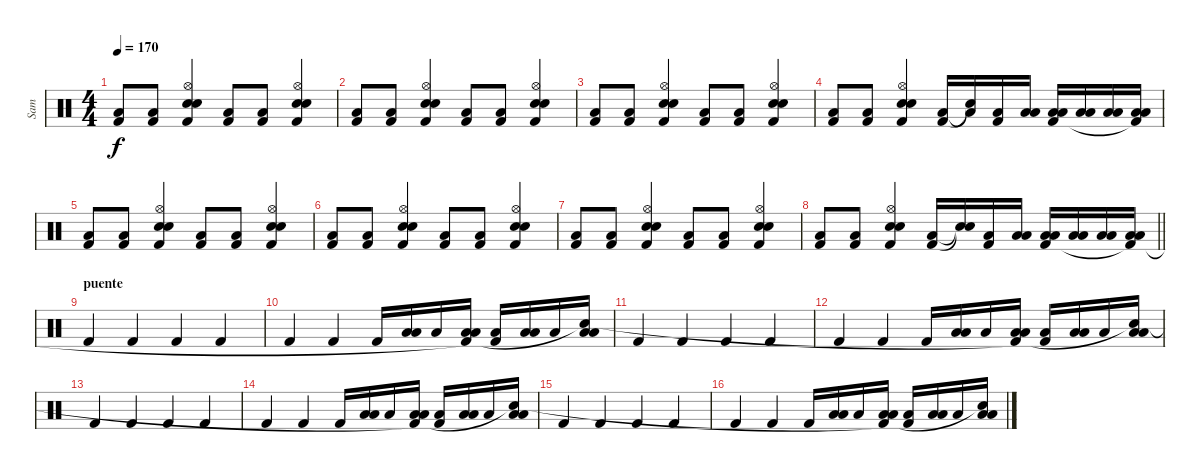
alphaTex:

\track ("Sam" "Sam") {instrument percussion}
\staff {score}
\articulation defaults
\ts (4 4)
\tempo 170
\clef neutral
\ks c
("Low Floor Tom (hit)" "Kick (hit) 2").8{dy f volume 10} ("Low Floor Tom (hit)" "Kick (hit) 2").8 ("Hi-Hat (open)" "Snare (hit) 2" "Snare (hit) 2" "Kick (hit) 2").4 ("Low Floor Tom (hit)" "Kick (hit) 2").8 ("Low Floor Tom (hit)" "Kick (hit) 2").8 ("Hi-Hat (open)" "Snare (hit) 2" "Snare (hit) 2" "Kick (hit) 2").4 |
("Low Floor Tom (hit)" "Kick (hit) 2").8 ("Low Floor Tom (hit)" "Kick (hit) 2").8 ("Hi-Hat (open)" "Snare (hit) 2" "Snare (hit) 2" "Kick (hit) 2").4 ("Low Floor Tom (hit)" "Kick (hit) 2").8 ("Low Floor Tom (hit)" "Kick (hit) 2").8 ("Hi-Hat (open)" "Snare (hit) 2" "Snare (hit) 2" "Kick (hit) 2").4 |
("Low Floor Tom (hit)" "Kick (hit) 2").8 ("Low Floor Tom (hit)" "Kick (hit) 2").8 ("Hi-Hat (open)" "Snare (hit) 2" "Snare (hit) 2" "Kick (hit) 2").4 ("Low Floor Tom (hit)" "Kick (hit) 2").8 ("Low Floor Tom (hit)" "Kick (hit) 2").8 ("Hi-Hat (open)" "Snare (hit) 2" "Snare (hit) 2" "Kick (hit) 2").4 |
("Low Floor Tom (hit)" "Kick (hit) 2").8 ("Low Floor Tom (hit)" "Kick (hit) 2").8 ("Hi-Hat (open)" "Snare (hit) 2" "Snare (hit) 2" "Kick (hit) 2").4 ("Low Floor Tom (hit)" "Kick (hit) 2").16 ("Low Floor Tom (hit)"{t} "Snare (hit)"{t}).16 ("Low Floor Tom (hit)" "Kick (hit) 2").16 ("Low Floor Tom (hit)" "Low Tom (hit)").16 ("Low Floor Tom (hit)" "Low Tom (hit)" "Kick (hit) 2").16 ("Low Floor Tom (hit)" "Low Tom (hit)").16 ("Low Floor Tom (hit)" "Low Tom (hit)").16 ("Low Floor Tom (hit)" "Low Tom (hit)" "Kick (hit) 2"{t}).16 |
("Low Floor Tom (hit)" "Kick (hit) 2").8 ("Low Floor Tom (hit)" "Kick (hit) 2").8 ("Hi-Hat (open)" "Snare (hit) 2" "Snare (hit) 2" "Kick (hit) 2").4 ("Low Floor Tom (hit)" "Kick (hit) 2").8 ("Low Floor Tom (hit)" "Kick (hit) 2").8 ("Hi-Hat (open)" "Snare (hit) 2" "Snare (hit) 2" "Kick (hit) 2").4 |
("Low Floor Tom (hit)" "Kick (hit) 2").8 ("Low Floor Tom (hit)" "Kick (hit) 2").8 ("Hi-Hat (open)" "Snare (hit) 2" "Snare (hit) 2" "Kick (hit) 2").4 ("Low Floor Tom (hit)" "Kick (hit) 2").8 ("Low Floor Tom (hit)" "Kick (hit) 2").8 ("Hi-Hat (open)" "Snare (hit) 2" "Snare (hit) 2" "Kick (hit) 2").4 |
("Low Floor Tom (hit)" "Kick (hit) 2").8 ("Low Floor Tom (hit)" "Kick (hit) 2").8 ("Hi-Hat (open)" "Snare (hit) 2" "Snare (hit) 2" "Kick (hit) 2").4 ("Low Floor Tom (hit)" "Kick (hit) 2").8 ("Low Floor Tom (hit)" "Kick (hit) 2").8 ("Hi-Hat (open)" "Snare (hit) 2" "Snare (hit) 2" "Kick (hit) 2").4 |
\barLineRight lightlight
("Low Floor Tom (hit)" "Kick (hit) 2").8 ("Low Floor Tom (hit)" "Kick (hit) 2").8 ("Hi-Hat (open)" "Snare (hit) 2" "Snare (hit) 2" "Kick (hit) 2").4 ("Low Floor Tom (hit)" "Kick (hit) 2").16 ("Snare (hit)"{t} "Snare (hit)"{t}).16 ("Low Floor Tom (hit)" "Kick (hit) 2").16 ("Low Floor Tom (hit)" "Low Tom (hit)").16 ("Low Floor Tom (hit)" "Low Tom (hit)" "Kick (hit) 2").16 ("Low Floor Tom (hit)" "Low Tom (hit)").16 ("Low Floor Tom (hit)" "Low Tom (hit)").16 ("Low Floor Tom (hit)" "Low Tom (hit)" "Kick (hit) 2"{t}).16 |
\section ("" "puente")
"Kick (hit) 2".4 "Kick (hit) 2".4 "Kick (hit) 2".4 "Kick (hit) 2".4 |
"Kick (hit) 2".4 "Kick (hit) 2".4 "Kick (hit) 2".16 ("Low Tom (hit)" "Low Floor Tom (hit)").16 "Low Tom (hit)".16 ("Low Tom (hit)" "Low Floor Tom (hit)" "Kick (hit) 2"{t}).16 ("Low Tom (hit)" "Kick (hit) 2").16 ("Low Tom (hit)" "Low Floor Tom (hit)").16 "Low Tom (hit)".16 ("Low Tom (hit)" "Low Floor Tom (hit)" "Snare (hit)"{t}).16 |
"Kick (hit) 2".4 "Kick (hit) 2".4 "Kick (hit) 2".4 "Kick (hit) 2".4 |
"Kick (hit) 2".4 "Kick (hit) 2".4 "Kick (hit) 2".16 ("Low Tom (hit)" "Low Floor Tom (hit)").16 "Low Tom (hit)".16 ("Low Tom (hit)" "Low Floor Tom (hit)" "Kick (hit) 2"{t}).16 ("Low Tom (hit)" "Kick (hit) 2").16 ("Low Tom (hit)" "Low Floor Tom (hit)").16 "Low Tom (hit)".16 ("Low Tom (hit)" "Low Floor Tom (hit)" "Snare (hit)"{t}).16 |
"Kick (hit) 2".4 "Kick (hit) 2".4 "Kick (hit) 2".4 "Kick (hit) 2".4 |
"Kick (hit) 2".4 "Kick (hit) 2".4 "Kick (hit) 2".16 ("Low Tom (hit)" "Low Floor Tom (hit)").16 "Low Tom (hit)".16 ("Low Tom (hit)" "Low Floor Tom (hit)" "Kick (hit) 2"{t}).16 ("Low Tom (hit)" "Kick (hit) 2").16 ("Low Tom (hit)" "Low Floor Tom (hit)").16 "Low Tom (hit)".16 ("Low Tom (hit)" "Low Floor Tom (hit)" "Snare (hit)"{t}).16 |
"Kick (hit) 2".4 "Kick (hit) 2".4 "Kick (hit) 2".4 "Kick (hit) 2".4 |
"Kick (hit) 2".4 "Kick (hit) 2".4 "Kick (hit) 2".16 ("Low Tom (hit)" "Low Floor Tom (hit)").16 "Low Tom (hit)".16 ("Low Tom (hit)" "Low Floor Tom (hit)" "Kick (hit) 2"{t}).16 ("Low Tom (hit)" "Kick (hit) 2").16 ("Low Tom (hit)" "Low Floor Tom (hit)").16 "Low Tom (hit)".16 ("Low Tom (hit)" "Low Floor Tom (hit)" "Snare (hit)"{t}).16
